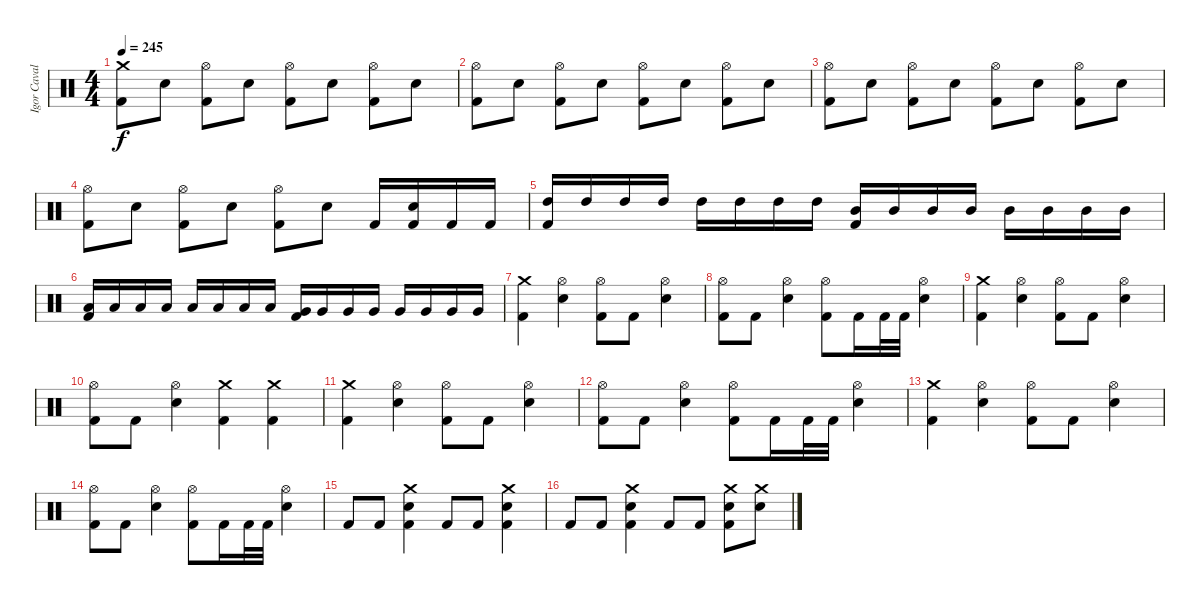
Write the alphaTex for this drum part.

\track ("Igor Cavalera" "Igor Caval") {instrument percussion}
\staff {score}
\articulation defaults
\ts (4 4)
\tempo 245
\clef neutral
\ks c
("Crash medium (hit)" "Kick (hit) 2").8{dy f} "Electric Snare (hit)".8 ("Hi-Hat (open)" "Kick (hit) 2").8 "Electric Snare (hit)".8 ("Hi-Hat (open)" "Kick (hit) 2").8 "Electric Snare (hit)".8 ("Hi-Hat (open)" "Kick (hit) 2").8 "Electric Snare (hit)".8 |
("Hi-Hat (open)" "Kick (hit) 2").8 "Electric Snare (hit)".8 ("Hi-Hat (open)" "Kick (hit) 2").8 "Electric Snare (hit)".8 ("Hi-Hat (open)" "Kick (hit) 2").8 "Electric Snare (hit)".8 ("Hi-Hat (open)" "Kick (hit) 2").8 "Electric Snare (hit)".8 |
("Hi-Hat (open)" "Kick (hit) 2").8 "Electric Snare (hit)".8 ("Hi-Hat (open)" "Kick (hit) 2").8 "Electric Snare (hit)".8 ("Hi-Hat (open)" "Kick (hit) 2").8 "Electric Snare (hit)".8 ("Hi-Hat (open)" "Kick (hit) 2").8 "Electric Snare (hit)".8 |
("Hi-Hat (open)" "Kick (hit) 2").8 "Electric Snare (hit)".8 ("Hi-Hat (open)" "Kick (hit) 2").8 "Electric Snare (hit)".8 ("Hi-Hat (open)" "Kick (hit) 2").8 "Electric Snare (hit)".8 "Kick (hit) 2".16 ("Kick (hit) 2" "Electric Snare (hit)").16 "Kick (hit) 2".16 "Kick (hit) 2".16 |
("Kick (hit) 2" "High Tom (hit)").16 "High Tom (hit)".16 "High Tom (hit)".16 "High Tom (hit)".16 "High Tom (hit)".16 "High Tom (hit)".16 "High Tom (hit)".16 "High Tom (hit)".16 ("Kick (hit) 2" "Mid Tom (hit)").16 "Mid Tom (hit)".16 "Mid Tom (hit)".16 "Mid Tom (hit)".16 "Mid Tom (hit)".16 "Mid Tom (hit)".16 "Mid Tom (hit)".16 "Mid Tom (hit)".16 |
("Kick (hit) 2" "Low Tom (hit)").16 "Low Tom (hit)".16 "Low Tom (hit)".16 "Low Tom (hit)".16 "Low Tom (hit)".16 "Low Tom (hit)".16 "Low Tom (hit)".16 "Low Tom (hit)".16 ("Kick (hit) 2" "Very Low Tom (hit)").16 "Very Low Tom (hit)".16 "Very Low Tom (hit)".16 "Very Low Tom (hit)".16 "Very Low Tom (hit)".16 "Very Low Tom (hit)".16 "Very Low Tom (hit)".16 "Very Low Tom (hit)".16 |
("Kick (hit) 2" "Crash medium (hit)").4 ("Hi-Hat (open)" "Electric Snare (hit)").4 ("Hi-Hat (open)" "Kick (hit) 2").8 "Kick (hit) 2".8 ("Hi-Hat (open)" "Electric Snare (hit)").4 |
("Hi-Hat (open)" "Kick (hit) 2").8 "Kick (hit) 2".8 ("Hi-Hat (open)" "Electric Snare (hit)").4 ("Hi-Hat (open)" "Kick (hit) 2").8 "Kick (hit) 2".16 "Kick (hit) 2".32 "Kick (hit) 2".32 ("Hi-Hat (open)" "Electric Snare (hit)").4 |
("Kick (hit) 2" "Crash medium (hit)").4 ("Hi-Hat (open)" "Electric Snare (hit)").4 ("Hi-Hat (open)" "Kick (hit) 2").8 "Kick (hit) 2".8 ("Hi-Hat (open)" "Electric Snare (hit)").4 |
("Hi-Hat (open)" "Kick (hit) 2").8 "Kick (hit) 2".8 ("Hi-Hat (open)" "Electric Snare (hit)").4 ("Kick (hit) 2" "Crash medium (hit)").4 ("Kick (hit) 2" "Crash medium (hit)").4 |
("Kick (hit) 2" "Crash medium (hit)").4 ("Hi-Hat (open)" "Electric Snare (hit)").4 ("Hi-Hat (open)" "Kick (hit) 2").8 "Kick (hit) 2".8 ("Hi-Hat (open)" "Electric Snare (hit)").4 |
("Hi-Hat (open)" "Kick (hit) 2").8 "Kick (hit) 2".8 ("Hi-Hat (open)" "Electric Snare (hit)").4 ("Hi-Hat (open)" "Kick (hit) 2").8 "Kick (hit) 2".16 "Kick (hit) 2".32 "Kick (hit) 2".32 ("Hi-Hat (open)" "Electric Snare (hit)").4 |
("Kick (hit) 2" "Crash medium (hit)").4 ("Hi-Hat (open)" "Electric Snare (hit)").4 ("Hi-Hat (open)" "Kick (hit) 2").8 "Kick (hit) 2".8 ("Hi-Hat (open)" "Electric Snare (hit)").4 |
("Hi-Hat (open)" "Kick (hit) 2").8 "Kick (hit) 2".8 ("Hi-Hat (open)" "Electric Snare (hit)").4 ("Hi-Hat (open)" "Kick (hit) 2").8 "Kick (hit) 2".16 "Kick (hit) 2".32 "Kick (hit) 2".32 ("Hi-Hat (open)" "Electric Snare (hit)").4 |
"Kick (hit) 2".8 "Kick (hit) 2".8 ("Crash medium (hit)" "Kick (hit) 2" "Electric Snare (hit)").4 "Kick (hit) 2".8 "Kick (hit) 2".8 ("Crash medium (hit)" "Kick (hit) 2" "Electric Snare (hit)").4 |
"Kick (hit) 2".8 "Kick (hit) 2".8 ("Crash medium (hit)" "Kick (hit) 2" "Electric Snare (hit)").4 "Kick (hit) 2".8 "Kick (hit) 2".8 ("Crash medium (hit)" "Kick (hit) 2" "Electric Snare (hit)").8 ("Crash medium (hit)" "Electric Snare (hit)").8
